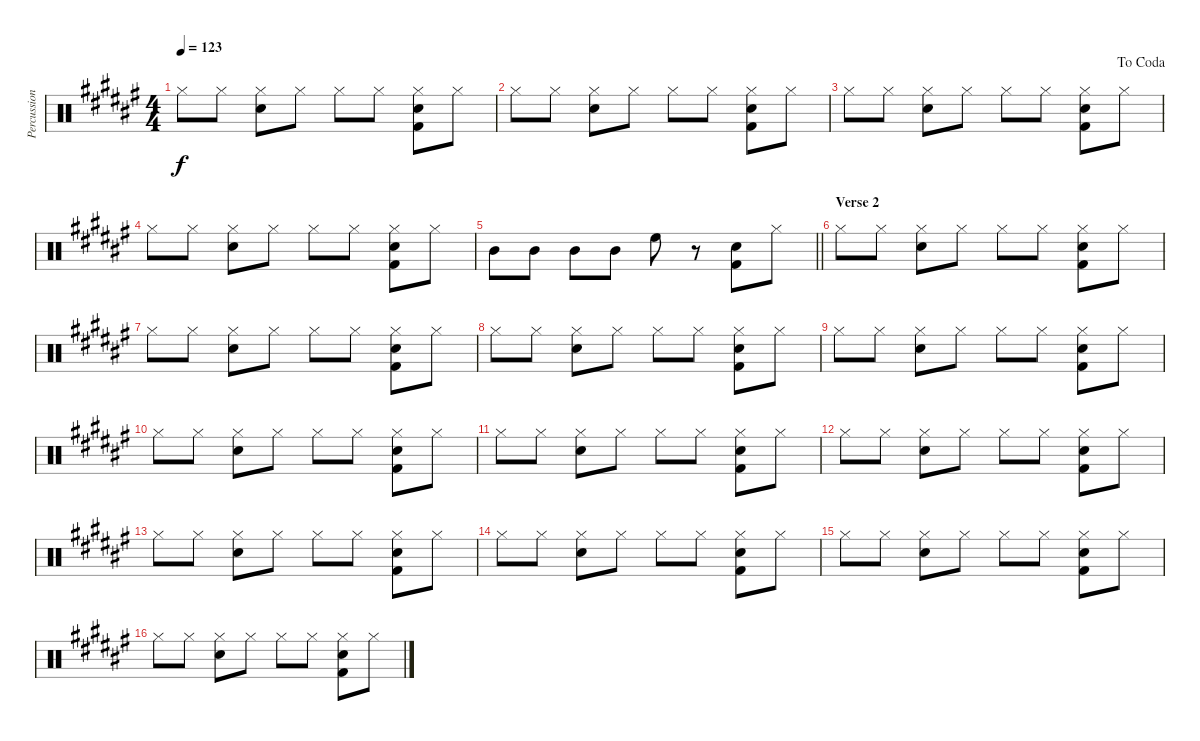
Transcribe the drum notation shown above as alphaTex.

\track ("Percussion" "Percussion") {instrument percussion}
\staff {score}
\articulation defaults
\ts (4 4)
\tempo 123
\clef neutral
\ks f# "Hi-Hat (closed)".8{dy f} "Hi-Hat (closed)".8
("Hi-Hat (closed)" "Snare (hit) 2").8 "Hi-Hat (closed)".8 "Hi-Hat (closed)".8 "Hi-Hat (closed)".8 ("Hi-Hat (closed)" "Snare (hit) 2" "Kick (hit) 2").8 "Hi-Hat (closed)".8 |
"Hi-Hat (closed)".8 "Hi-Hat (closed)".8 ("Hi-Hat (closed)" "Snare (hit) 2").8 "Hi-Hat (closed)".8 "Hi-Hat (closed)".8 "Hi-Hat (closed)".8 ("Hi-Hat (closed)" "Snare (hit) 2" "Kick (hit) 2").8 "Hi-Hat (closed)".8 |
\jump dacoda "Hi-Hat (closed)".8 "Hi-Hat (closed)".8
("Hi-Hat (closed)" "Snare (hit) 2").8 "Hi-Hat (closed)".8 "Hi-Hat (closed)".8 "Hi-Hat (closed)".8 ("Hi-Hat (closed)" "Snare (hit) 2" "Kick (hit) 2").8 "Hi-Hat (closed)".8 |
"Hi-Hat (closed)".8 "Hi-Hat (closed)".8 ("Hi-Hat (closed)" "Snare (hit) 2").8 "Hi-Hat (closed)".8 "Hi-Hat (closed)".8 "Hi-Hat (closed)".8 ("Hi-Hat (closed)" "Snare (hit) 2" "Kick (hit) 2").8 "Hi-Hat (closed)".8 |
\barLineRight lightlight "Mid Tom (hit)".8 "Mid Tom (hit)".8 "Mid Tom (hit)".8 "Mid Tom (hit)".8 "High Floor Tom (hit)".8
r.8 ("Snare (hit) 2" "Kick (hit) 2").8 "Hi-Hat (closed)".8 |
\section ("" "Verse 2")
"Hi-Hat (closed)".8 "Hi-Hat (closed)".8 ("Hi-Hat (closed)" "Snare (hit) 2").8 "Hi-Hat (closed)".8 "Hi-Hat (closed)".8 "Hi-Hat (closed)".8 ("Hi-Hat (closed)" "Snare (hit) 2" "Kick (hit) 2").8 "Hi-Hat (closed)".8 |
"Hi-Hat (closed)".8 "Hi-Hat (closed)".8 ("Hi-Hat (closed)" "Snare (hit) 2").8 "Hi-Hat (closed)".8 "Hi-Hat (closed)".8 "Hi-Hat (closed)".8 ("Hi-Hat (closed)" "Snare (hit) 2" "Kick (hit) 2").8 "Hi-Hat (closed)".8 |
"Hi-Hat (closed)".8 "Hi-Hat (closed)".8 ("Hi-Hat (closed)" "Snare (hit) 2").8 "Hi-Hat (closed)".8 "Hi-Hat (closed)".8 "Hi-Hat (closed)".8 ("Hi-Hat (closed)" "Snare (hit) 2" "Kick (hit) 2").8 "Hi-Hat (closed)".8 |
"Hi-Hat (closed)".8 "Hi-Hat (closed)".8 ("Hi-Hat (closed)" "Snare (hit) 2").8 "Hi-Hat (closed)".8 "Hi-Hat (closed)".8 "Hi-Hat (closed)".8 ("Hi-Hat (closed)" "Snare (hit) 2" "Kick (hit) 2").8 "Hi-Hat (closed)".8 |
"Hi-Hat (closed)".8 "Hi-Hat (closed)".8 ("Hi-Hat (closed)" "Snare (hit) 2").8 "Hi-Hat (closed)".8 "Hi-Hat (closed)".8 "Hi-Hat (closed)".8 ("Hi-Hat (closed)" "Snare (hit) 2" "Kick (hit) 2").8 "Hi-Hat (closed)".8 |
"Hi-Hat (closed)".8 "Hi-Hat (closed)".8 ("Hi-Hat (closed)" "Snare (hit) 2").8 "Hi-Hat (closed)".8 "Hi-Hat (closed)".8 "Hi-Hat (closed)".8 ("Hi-Hat (closed)" "Snare (hit) 2" "Kick (hit) 2").8 "Hi-Hat (closed)".8 |
"Hi-Hat (closed)".8 "Hi-Hat (closed)".8 ("Hi-Hat (closed)" "Snare (hit) 2").8 "Hi-Hat (closed)".8 "Hi-Hat (closed)".8 "Hi-Hat (closed)".8 ("Hi-Hat (closed)" "Snare (hit) 2" "Kick (hit) 2").8 "Hi-Hat (closed)".8 |
"Hi-Hat (closed)".8 "Hi-Hat (closed)".8 ("Hi-Hat (closed)" "Snare (hit) 2").8 "Hi-Hat (closed)".8 "Hi-Hat (closed)".8 "Hi-Hat (closed)".8 ("Hi-Hat (closed)" "Snare (hit) 2" "Kick (hit) 2").8 "Hi-Hat (closed)".8 |
"Hi-Hat (closed)".8 "Hi-Hat (closed)".8 ("Hi-Hat (closed)" "Snare (hit) 2").8 "Hi-Hat (closed)".8 "Hi-Hat (closed)".8 "Hi-Hat (closed)".8 ("Hi-Hat (closed)" "Snare (hit) 2" "Kick (hit) 2").8 "Hi-Hat (closed)".8 |
"Hi-Hat (closed)".8 "Hi-Hat (closed)".8 ("Hi-Hat (closed)" "Snare (hit) 2").8 "Hi-Hat (closed)".8 "Hi-Hat (closed)".8 "Hi-Hat (closed)".8 ("Hi-Hat (closed)" "Snare (hit) 2" "Kick (hit) 2").8 "Hi-Hat (closed)".8 |
"Hi-Hat (closed)".8 "Hi-Hat (closed)".8 ("Hi-Hat (closed)" "Snare (hit) 2").8 "Hi-Hat (closed)".8 "Hi-Hat (closed)".8 "Hi-Hat (closed)".8 ("Hi-Hat (closed)" "Snare (hit) 2" "Kick (hit) 2").8 "Hi-Hat (closed)".8
